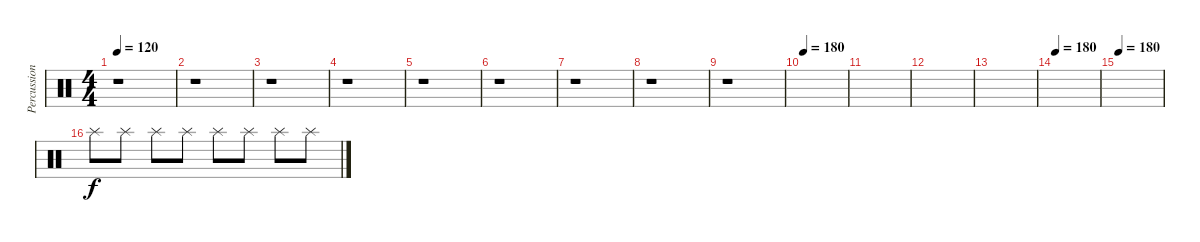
\track ("Percussion 3" "Percussion") {instrument percussion}
\staff {score}
\articulation defaults
\ts (4 4)
\tempo 120
\clef neutral
\ks c
r.1{dy f} |
r.1 |
r.1 |
r.1 |
r.1 |
r.1 |
r.1 |
r.1 |
r.1 |
\tempo 180
|
|
|
|
\tempo 180
|
\tempo 180
|
"Splash (hit)".8 "Splash (hit)".8 "Splash (hit)".8 "Splash (hit)".8 "Splash (hit)".8 "Splash (hit)".8 "Splash (hit)".8 "Splash (hit)".8
